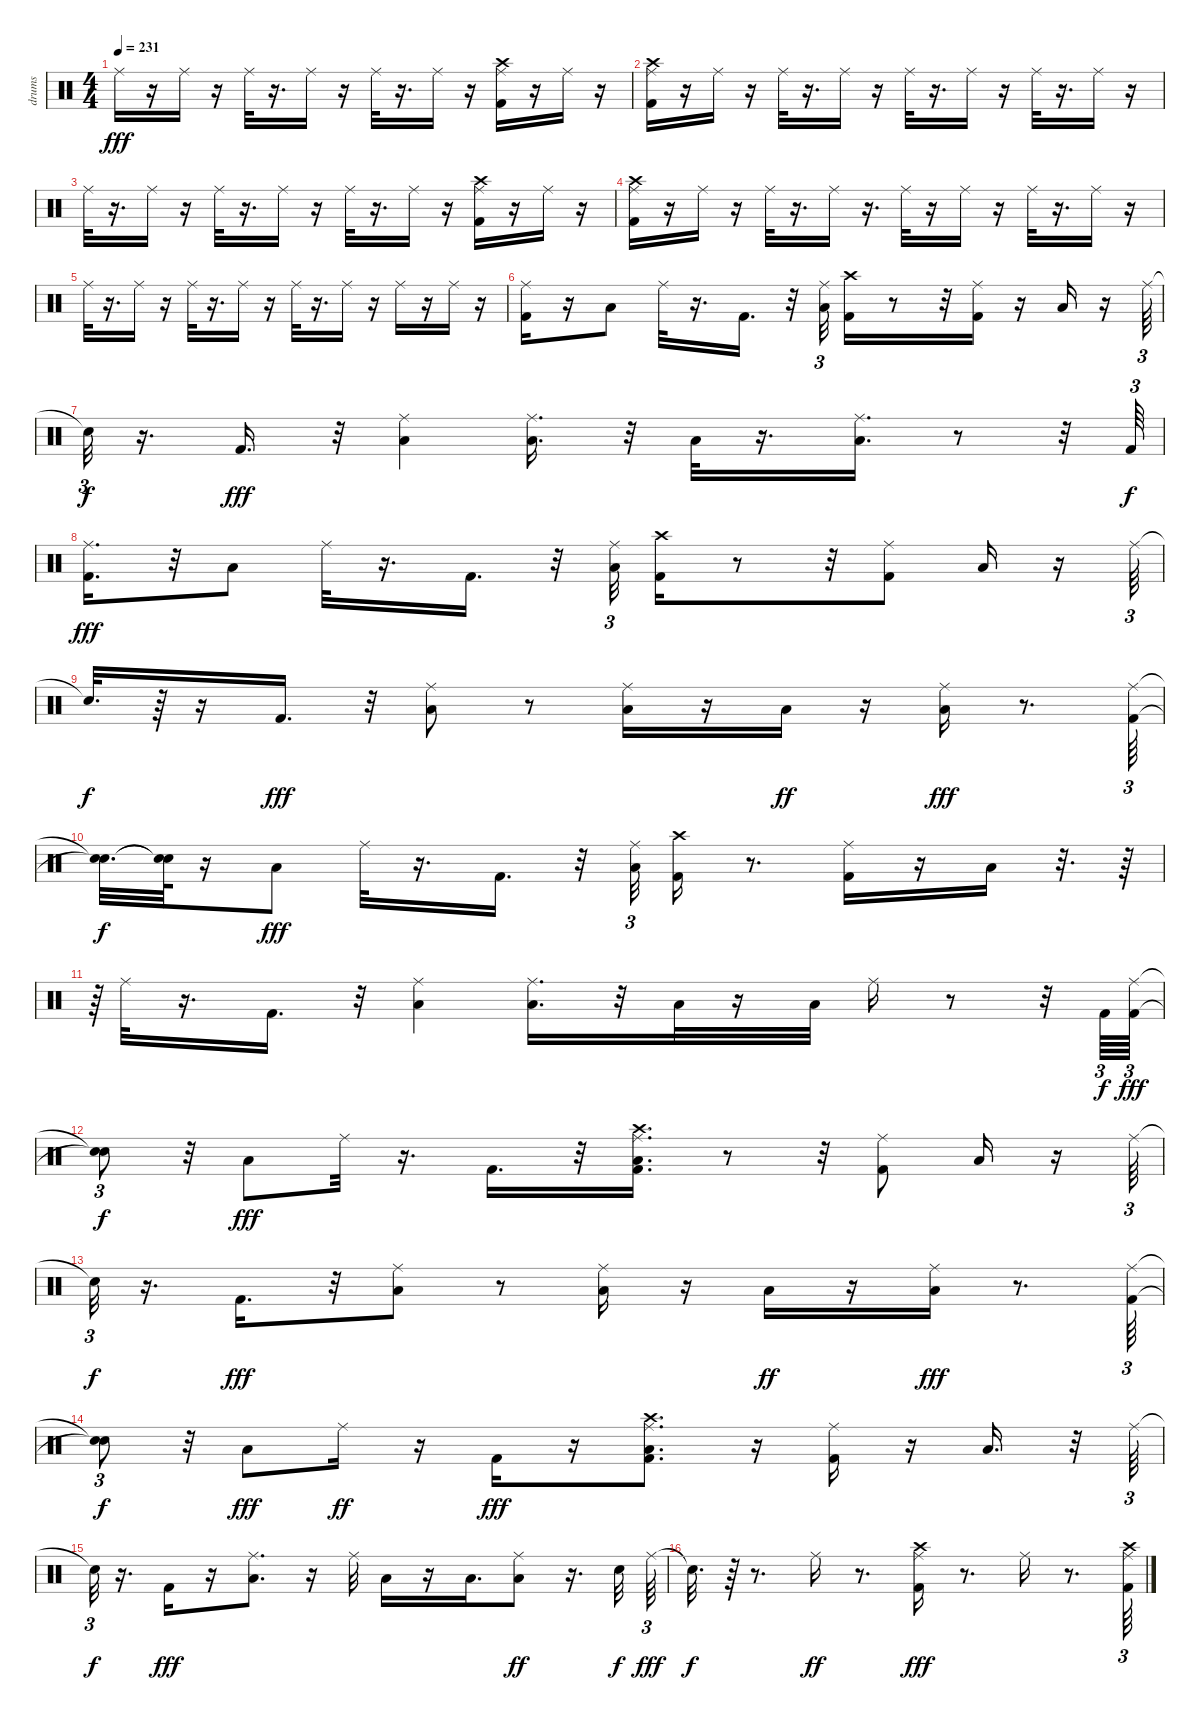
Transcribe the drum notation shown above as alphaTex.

\track ("drums               " "drums     ") {instrument percussion}
\staff {score}
\articulation defaults
\ts (4 4)
\tempo 231
\clef neutral
\ks c "Ride (middle)".16{dy fff}
r.16 "Ride (middle)".16 r.16 "Ride (middle)".32 r.16{d} "Ride (middle)".16 r.16 "Ride (middle)".32 r.16{d} "Ride (middle)".16 r.16 ("Kick (hit) 2" "Ride (middle)" "Crash high (hit)").16 r.16 "Ride (middle)".16 r.16 |
("Kick (hit) 2" "Ride (middle)" "Crash high (hit)").16 r.16 "Ride (middle)".16 r.16 "Ride (middle)".32 r.16{d} "Ride (middle)".16 r.16 "Ride (middle)".32 r.16{d} "Ride (middle)".16 r.16 "Ride (middle)".32 r.16{d} "Ride (middle)".16 r.16 |
"Ride (middle)".32 r.16{d} "Ride (middle)".16 r.16 "Ride (middle)".32 r.16{d} "Ride (middle)".16 r.16 "Ride (middle)".32 r.16{d} "Ride (middle)".16 r.16 ("Kick (hit) 2" "Crash high (hit)" "Ride (middle)").16 r.16 "Ride (middle)".16 r.16 |
("Kick (hit) 2" "Ride (middle)" "Crash high (hit)").16 r.16 "Ride (middle)".16 r.16 "Ride (middle)".32 r.16{d} "Ride (middle)".16 r.16{d} "Ride (middle)".32 r.16 "Ride (middle)".16 r.16 "Ride (middle)".32 r.16{d} "Ride (middle)".16 r.16 |
"Ride (middle)".32 r.16{d} "Ride (middle)".16 r.16 "Ride (middle)".32 r.16{d} "Ride (middle)".16 r.16 "Ride (middle)".32 r.16{d} "Ride (middle)".16 r.16 "Ride (middle)".16 r.16 "Ride (middle)".16 r.16 |
("Kick (hit) 2" "Ride (middle)").16 r.16 "Low Tom (hit)".8 "Ride (middle)".32 r.16{d} "Kick (hit) 2".16{d} r.32 ("Ride (middle)" "Low Tom (hit)").32{tu (3 2)} ("Kick (hit) 2" "Crash high (hit)").16 r.8 r.32 ("Ride (middle)" "Kick (hit) 2").16 r.16 "Low Tom (hit)".16 r.16 "Ride (middle)".64{tu (3 2)} |
"Snare (hit)"{t}.32{tu (3 2) dy f} r.16{d} "Kick (hit) 2".16{d dy fff} r.32 ("Ride (middle)" "Low Tom (hit)").4 ("Ride (middle)" "Low Floor Tom (hit)").16{d} r.32 "Low Floor Tom (hit)".32 r.16{d} ("Low Floor Tom (hit)" "Ride (middle)").16{d} r.8 r.32 "Kick (hit) 2".64{tu (3 2) dy f} |
("Kick (hit) 2" "Ride (middle)").16{d dy fff} r.32 "Low Tom (hit)".8 "Ride (middle)".32 r.16{d} "Kick (hit) 2".16{d} r.32 ("Ride (middle)" "Low Tom (hit)").32{tu (3 2)} ("Kick (hit) 2" "Crash high (hit)").16 r.8 r.32 ("Ride (middle)" "Kick (hit) 2").8 "Low Tom (hit)".16 r.16 "Ride (middle)".64{tu (3 2)} |
"Snare (hit)"{t}.32{d dy f} r.64 r.16 "Kick (hit) 2".16{d dy fff} r.32 ("Ride (middle)" "Low Tom (hit)").8 r.8 ("Ride (middle)" "Low Floor Tom (hit)").16 r.16 "Low Floor Tom (hit)".16{dy ff} r.16 ("Low Floor Tom (hit)" "Ride (middle)").16{dy fff} r.8{d} ("Kick (hit) 2" "Ride (middle)").64{tu (3 2)} |
("Snare (hit)"{t} "Snare (hit)"{t}).32{d dy f} ("Snare (hit)"{t} "Snare (hit)"{t}).64 r.16 "Low Tom (hit)".8{dy fff} "Ride (middle)".32 r.16{d} "Kick (hit) 2".16{d} r.32 ("Ride (middle)" "Low Tom (hit)").32{tu (3 2)} ("Kick (hit) 2" "Crash high (hit)").16 r.8{d} ("Ride (middle)" "Kick (hit) 2").16 r.16 "Low Tom (hit)".16 r.32{d} r.64 |
r.64{tu (3 2)} "Ride (middle)".32 r.16{d} "Kick (hit) 2".16{d} r.32 ("Ride (middle)" "Low Tom (hit)").4 ("Ride (middle)" "Low Floor Tom (hit)").16{d} r.32 "Low Floor Tom (hit)".32 r.16 "Low Floor Tom (hit)".32 "Ride (middle)".16 r.8 r.32 "Kick (hit) 2".64{tu (3 2) dy f} ("Kick (hit) 2" "Ride (middle)").64{tu (3 2) dy fff} |
("Snare (hit)"{t} "Snare (hit)"{t}).8{tu (3 2) dy f} r.32 "Low Tom (hit)".8{dy fff} "Ride (middle)".32 r.16{d} "Kick (hit) 2".16{d} r.32 ("Kick (hit) 2" "Ride (middle)" "Low Tom (hit)" "Crash high (hit)").16{d} r.8 r.32 ("Ride (middle)" "Kick (hit) 2").8 "Low Tom (hit)".16 r.16 "Ride (middle)".64{tu (3 2)} |
"Snare (hit)"{t}.32{tu (3 2) dy f} r.16{d} "Kick (hit) 2".16{d dy fff} r.32 ("Low Tom (hit)" "Ride (middle)").8 r.8 ("Ride (middle)" "Low Floor Tom (hit)").16 r.16 "Low Floor Tom (hit)".16{dy ff} r.16 ("Ride (middle)" "Low Floor Tom (hit)").16{dy fff} r.8{d} ("Ride (middle)" "Kick (hit) 2").64{tu (3 2)} |
("Snare (hit)"{t} "Snare (hit)"{t}).8{tu (3 2) dy f} r.32 "Low Tom (hit)".8{dy fff} "Ride (middle)".16{dy ff} r.16 "Kick (hit) 2".16{dy fff} r.16 ("Ride (middle)" "Low Tom (hit)" "Kick (hit) 2" "Crash high (hit)").8{d} r.16 ("Ride (middle)" "Kick (hit) 2").16 r.16 "Low Tom (hit)".16{d} r.32 "Ride (middle)".64{tu (3 2)} |
"Snare (hit)"{t}.32{tu (3 2) dy f} r.16{d} "Kick (hit) 2".16{dy fff} r.16 ("Ride (middle)" "Low Tom (hit)").8{d} r.16 "Ride (middle)".32 "Low Floor Tom (hit)".16 r.16 "Low Floor Tom (hit)".16{d} ("Ride (middle)" "Low Floor Tom (hit)").8{dy ff} r.16{d} "Electric Snare (hit)".32{dy f} "Ride (middle)".64{tu (3 2) dy fff} |
"Snare (hit)"{t}.32{d dy f} r.64 r.8{d} "Ride (middle)".16{dy ff} r.8{d} ("Kick (hit) 2" "Ride (middle)" "Crash high (hit)").16{dy fff} r.8{d} "Ride (middle)".16 r.8{d} ("Kick (hit) 2" "Ride (middle)" "Crash high (hit)").64{tu (3 2)}
